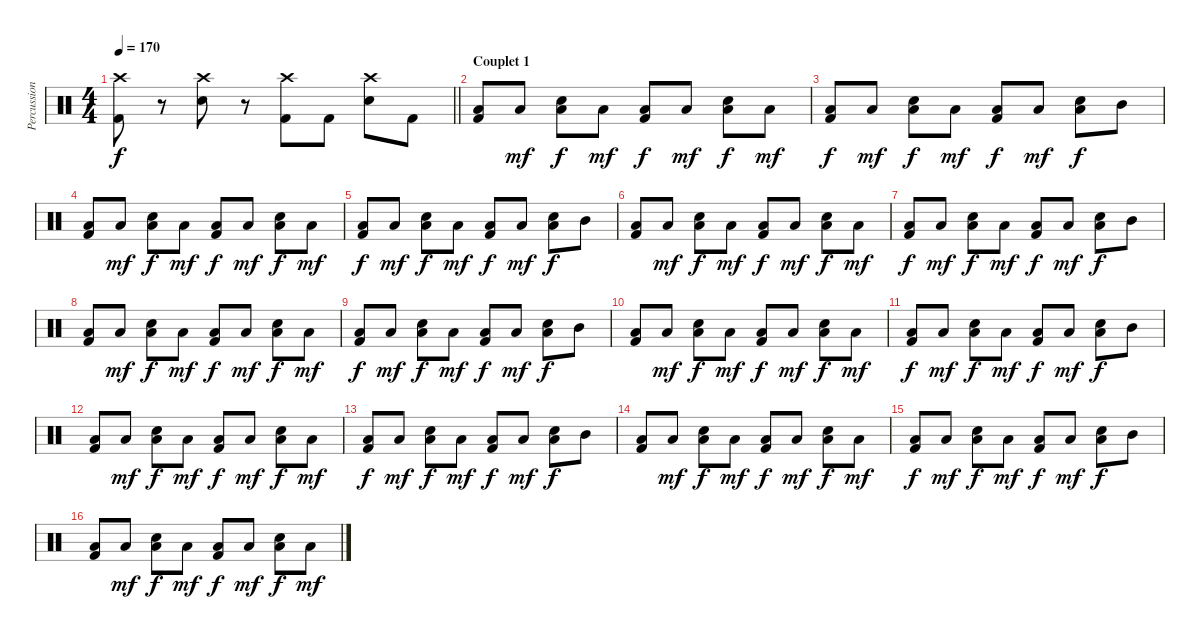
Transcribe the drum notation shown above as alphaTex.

\track ("Percussions" "Percussion") {instrument percussion}
\staff {score}
\articulation defaults
\ts (4 4)
\tempo 170
\clef neutral
\barLineRight lightlight
\ks c
("Kick (hit) 2" "Crash high (hit)").8{dy f} r.8 ("Electric Snare (hit)" "Crash high (hit)").8 r.8 ("Kick (hit) 2" "Crash high (hit)").8 "Kick (hit) 2".8 ("Electric Snare (hit)" "Crash high (hit)").8 "Kick (hit) 2".8 |
\section ("" "Couplet 1")
("Kick (hit) 2" "Low Floor Tom (hit)").8 "Low Floor Tom (hit)".8{dy mf} ("Electric Snare (hit)" "Low Floor Tom (hit)").8{dy f} "Low Floor Tom (hit)".8{dy mf} ("Kick (hit) 2" "Low Floor Tom (hit)").8{dy f} "Low Floor Tom (hit)".8{dy mf} ("Electric Snare (hit)" "Low Floor Tom (hit)").8{dy f} "Low Floor Tom (hit)".8{dy mf} |
("Kick (hit) 2" "Low Floor Tom (hit)").8{dy f} "Low Floor Tom (hit)".8{dy mf} ("Electric Snare (hit)" "Low Floor Tom (hit)").8{dy f} "Low Floor Tom (hit)".8{dy mf} ("Kick (hit) 2" "Low Floor Tom (hit)").8{dy f} "Low Floor Tom (hit)".8{dy mf} ("Electric Snare (hit)" "Low Floor Tom (hit)").8{dy f} "Mid Tom (hit)".8 |
("Kick (hit) 2" "Low Floor Tom (hit)").8 "Low Floor Tom (hit)".8{dy mf} ("Electric Snare (hit)" "Low Floor Tom (hit)").8{dy f} "Low Floor Tom (hit)".8{dy mf} ("Kick (hit) 2" "Low Floor Tom (hit)").8{dy f} "Low Floor Tom (hit)".8{dy mf} ("Electric Snare (hit)" "Low Floor Tom (hit)").8{dy f} "Low Floor Tom (hit)".8{dy mf} |
("Kick (hit) 2" "Low Floor Tom (hit)").8{dy f} "Low Floor Tom (hit)".8{dy mf} ("Electric Snare (hit)" "Low Floor Tom (hit)").8{dy f} "Low Floor Tom (hit)".8{dy mf} ("Kick (hit) 2" "Low Floor Tom (hit)").8{dy f} "Low Floor Tom (hit)".8{dy mf} ("Electric Snare (hit)" "Low Floor Tom (hit)").8{dy f} "Mid Tom (hit)".8 |
("Kick (hit) 2" "Low Floor Tom (hit)").8 "Low Floor Tom (hit)".8{dy mf} ("Electric Snare (hit)" "Low Floor Tom (hit)").8{dy f} "Low Floor Tom (hit)".8{dy mf} ("Kick (hit) 2" "Low Floor Tom (hit)").8{dy f} "Low Floor Tom (hit)".8{dy mf} ("Electric Snare (hit)" "Low Floor Tom (hit)").8{dy f} "Low Floor Tom (hit)".8{dy mf} |
("Kick (hit) 2" "Low Floor Tom (hit)").8{dy f} "Low Floor Tom (hit)".8{dy mf} ("Electric Snare (hit)" "Low Floor Tom (hit)").8{dy f} "Low Floor Tom (hit)".8{dy mf} ("Kick (hit) 2" "Low Floor Tom (hit)").8{dy f} "Low Floor Tom (hit)".8{dy mf} ("Electric Snare (hit)" "Low Floor Tom (hit)").8{dy f} "Mid Tom (hit)".8 |
("Kick (hit) 2" "Low Floor Tom (hit)").8 "Low Floor Tom (hit)".8{dy mf} ("Electric Snare (hit)" "Low Floor Tom (hit)").8{dy f} "Low Floor Tom (hit)".8{dy mf} ("Kick (hit) 2" "Low Floor Tom (hit)").8{dy f} "Low Floor Tom (hit)".8{dy mf} ("Electric Snare (hit)" "Low Floor Tom (hit)").8{dy f} "Low Floor Tom (hit)".8{dy mf} |
("Kick (hit) 2" "Low Floor Tom (hit)").8{dy f} "Low Floor Tom (hit)".8{dy mf} ("Electric Snare (hit)" "Low Floor Tom (hit)").8{dy f} "Low Floor Tom (hit)".8{dy mf} ("Kick (hit) 2" "Low Floor Tom (hit)").8{dy f} "Low Floor Tom (hit)".8{dy mf} ("Electric Snare (hit)" "Low Floor Tom (hit)").8{dy f} "Mid Tom (hit)".8 |
("Kick (hit) 2" "Low Floor Tom (hit)").8 "Low Floor Tom (hit)".8{dy mf} ("Electric Snare (hit)" "Low Floor Tom (hit)").8{dy f} "Low Floor Tom (hit)".8{dy mf} ("Kick (hit) 2" "Low Floor Tom (hit)").8{dy f} "Low Floor Tom (hit)".8{dy mf} ("Electric Snare (hit)" "Low Floor Tom (hit)").8{dy f} "Low Floor Tom (hit)".8{dy mf} |
("Kick (hit) 2" "Low Floor Tom (hit)").8{dy f} "Low Floor Tom (hit)".8{dy mf} ("Electric Snare (hit)" "Low Floor Tom (hit)").8{dy f} "Low Floor Tom (hit)".8{dy mf} ("Kick (hit) 2" "Low Floor Tom (hit)").8{dy f} "Low Floor Tom (hit)".8{dy mf} ("Electric Snare (hit)" "Low Floor Tom (hit)").8{dy f} "Mid Tom (hit)".8 |
("Kick (hit) 2" "Low Floor Tom (hit)").8 "Low Floor Tom (hit)".8{dy mf} ("Electric Snare (hit)" "Low Floor Tom (hit)").8{dy f} "Low Floor Tom (hit)".8{dy mf} ("Kick (hit) 2" "Low Floor Tom (hit)").8{dy f} "Low Floor Tom (hit)".8{dy mf} ("Electric Snare (hit)" "Low Floor Tom (hit)").8{dy f} "Low Floor Tom (hit)".8{dy mf} |
("Kick (hit) 2" "Low Floor Tom (hit)").8{dy f} "Low Floor Tom (hit)".8{dy mf} ("Electric Snare (hit)" "Low Floor Tom (hit)").8{dy f} "Low Floor Tom (hit)".8{dy mf} ("Kick (hit) 2" "Low Floor Tom (hit)").8{dy f} "Low Floor Tom (hit)".8{dy mf} ("Electric Snare (hit)" "Low Floor Tom (hit)").8{dy f} "Mid Tom (hit)".8 |
("Kick (hit) 2" "Low Floor Tom (hit)").8 "Low Floor Tom (hit)".8{dy mf} ("Electric Snare (hit)" "Low Floor Tom (hit)").8{dy f} "Low Floor Tom (hit)".8{dy mf} ("Kick (hit) 2" "Low Floor Tom (hit)").8{dy f} "Low Floor Tom (hit)".8{dy mf} ("Electric Snare (hit)" "Low Floor Tom (hit)").8{dy f} "Low Floor Tom (hit)".8{dy mf} |
("Kick (hit) 2" "Low Floor Tom (hit)").8{dy f} "Low Floor Tom (hit)".8{dy mf} ("Electric Snare (hit)" "Low Floor Tom (hit)").8{dy f} "Low Floor Tom (hit)".8{dy mf} ("Kick (hit) 2" "Low Floor Tom (hit)").8{dy f} "Low Floor Tom (hit)".8{dy mf} ("Electric Snare (hit)" "Low Floor Tom (hit)").8{dy f} "Mid Tom (hit)".8 |
("Kick (hit) 2" "Low Floor Tom (hit)").8 "Low Floor Tom (hit)".8{dy mf} ("Electric Snare (hit)" "Low Floor Tom (hit)").8{dy f} "Low Floor Tom (hit)".8{dy mf} ("Kick (hit) 2" "Low Floor Tom (hit)").8{dy f} "Low Floor Tom (hit)".8{dy mf} ("Electric Snare (hit)" "Low Floor Tom (hit)").8{dy f} "Low Floor Tom (hit)".8{dy mf}
